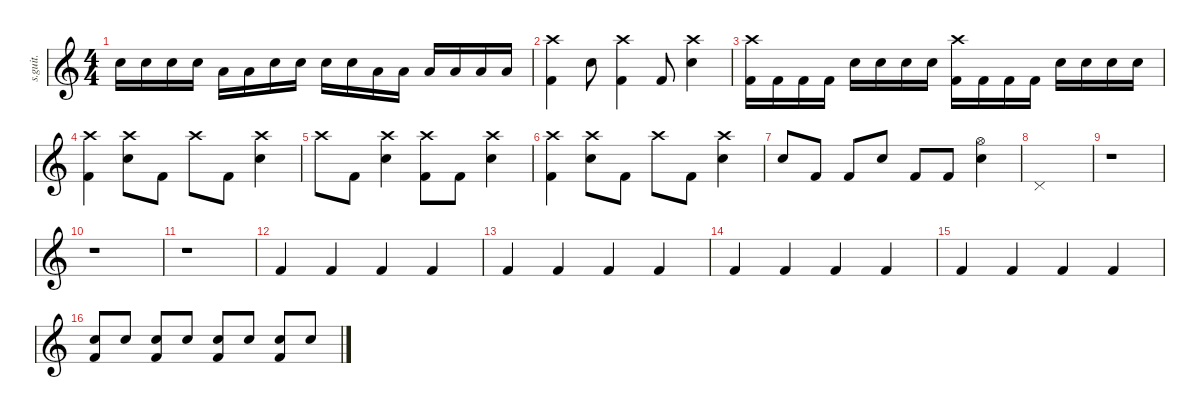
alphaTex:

\defaultSystemsLayout 4
\hideDynamics
\bracketExtendMode nobrackets
\track ("" "s.guit.") {instrument percussion}
\staff {score}
\articulation defaults
\ts (4 4)
\tempo (190 hide)
\clef g2
\ks c "Snare (hit) 2".16{dy f} "Snare (hit) 2".16 "Snare (hit) 2".16 "Snare (hit) 2".16 "Low Tom (hit)".16 "Low Tom (hit)".16 "Snare (hit) 2".16 "Snare (hit) 2".16 "Snare (hit) 2".16 "Snare (hit) 2".16 "Low Tom (hit)".16 "Low Tom (hit)".16 "Low Floor Tom (hit)".16 "Low Floor Tom (hit)".16 "Low Floor Tom (hit)".16 "Low Floor Tom (hit)".16
|
("Crash high (hit)" "Kick (hit) 2").4 "Snare (hit) 2".8 ("Crash high (hit)" "Kick (hit) 2").4 "Kick (hit) 2".8 ("Crash high (hit)" "Snare (hit) 2").4 |
("Crash high (hit)" "Kick (hit) 2").16 "Kick (hit) 2".16 "Kick (hit) 2".16 "Kick (hit) 2".16 "Snare (hit) 2".16 "Snare (hit) 2".16 "Snare (hit) 2".16 "Snare (hit) 2".16 ("Crash high (hit)" "Kick (hit) 2").16 "Kick (hit) 2".16 "Kick (hit) 2".16 "Kick (hit) 2".16 "Snare (hit) 2".16 "Snare (hit) 2".16 "Snare (hit) 2".16 "Snare (hit) 2".16 |
("Crash high (hit)" "Kick (hit) 2").4 ("Crash high (hit)" "Snare (hit) 2").8 "Kick (hit) 2".8 "Crash high (hit)".8 "Kick (hit) 2".8 ("Crash high (hit)" "Snare (hit) 2").4 |
"Crash high (hit)".8 "Kick (hit) 2".8 ("Crash high (hit)" "Snare (hit) 2").4 ("Crash high (hit)" "Kick (hit) 2").8 "Kick (hit) 2".8 ("Crash high (hit)" "Snare (hit) 2").4 |
("Crash high (hit)" "Kick (hit) 2").4 ("Crash high (hit)" "Snare (hit) 2").8 "Kick (hit) 2".8 "Crash high (hit)".8 "Kick (hit) 2".8 ("Crash high (hit)" "Snare (hit) 2").4 |
"Snare (hit) 2".8 "Kick (hit) 2".8 "Kick (hit) 2".8 "Snare (hit) 2".8 "Kick (hit) 2".8 "Kick (hit) 2".8 ("Hi-Hat (open)" "Snare (hit) 2").4 |
"Pedal Hi-Hat (hit)".1 |
r.1 |
r.1 |
r.1 |
"Kick (hit) 2".4 "Kick (hit) 2".4 "Kick (hit) 2".4 "Kick (hit) 2".4 |
"Kick (hit) 2".4 "Kick (hit) 2".4 "Kick (hit) 2".4 "Kick (hit) 2".4 |
"Kick (hit) 2".4 "Kick (hit) 2".4 "Kick (hit) 2".4 "Kick (hit) 2".4 |
"Kick (hit) 2".4 "Kick (hit) 2".4 "Kick (hit) 2".4 "Kick (hit) 2".4 |
("Snare (hit) 2" "Kick (hit) 2").8 "Snare (hit) 2".8 ("Snare (hit) 2" "Kick (hit) 2").8 "Snare (hit) 2".8 ("Snare (hit) 2" "Kick (hit) 2").8 "Snare (hit) 2".8 ("Snare (hit) 2" "Kick (hit) 2").8 "Snare (hit) 2".8
